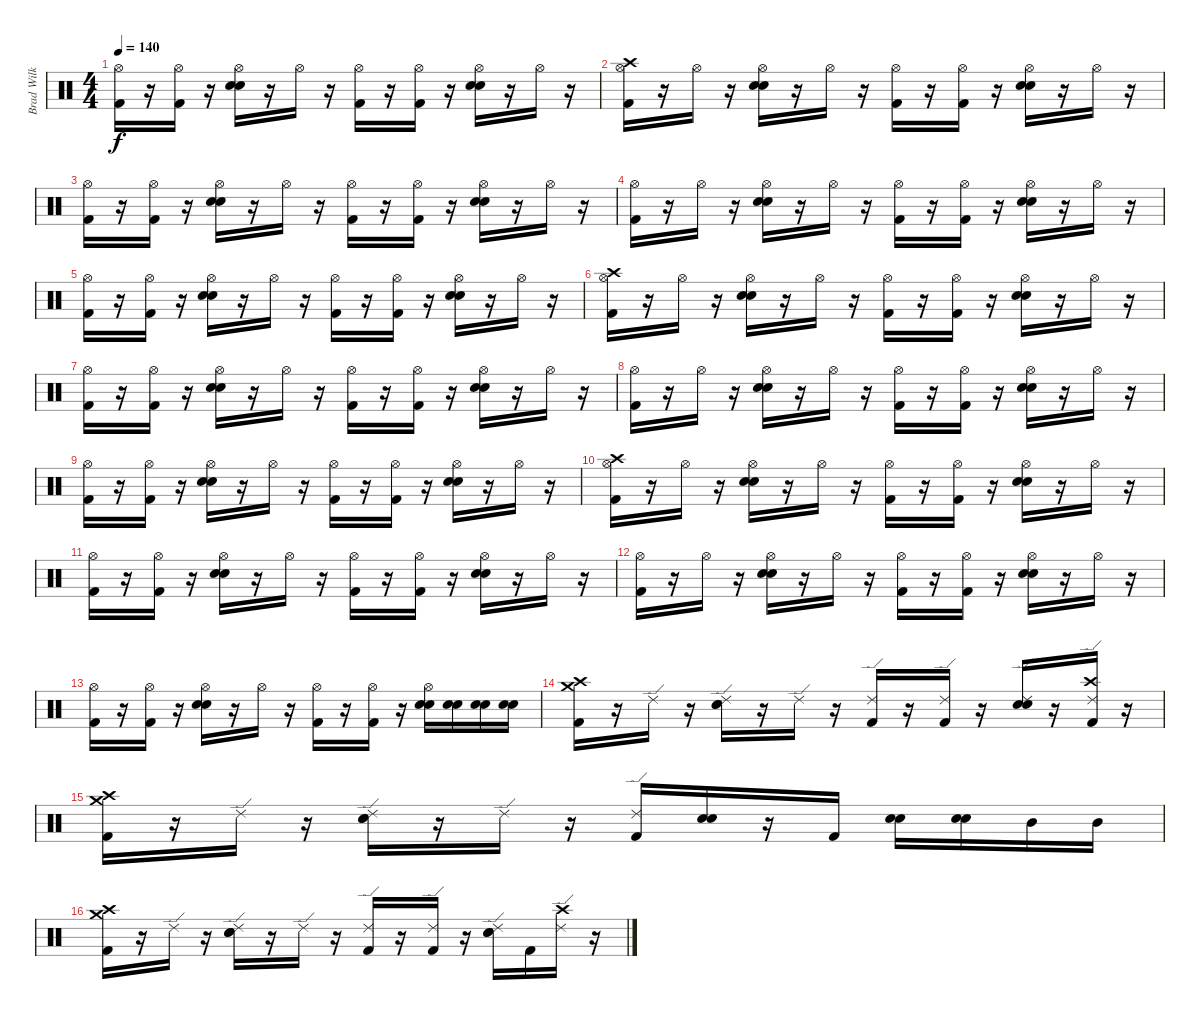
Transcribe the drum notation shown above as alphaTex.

\track ("Brad Wilk" "Brad Wilk") {instrument percussion}
\staff {score}
\articulation defaults
\ts (4 4)
\tempo 140
\clef neutral
\ks c
("Hi-Hat (open)" "Kick (hit) 2").16{dy f} r.16 ("Hi-Hat (open)" "Kick (hit) 2").16 r.16 ("Hi-Hat (open)" "Electric Snare (hit)" "Snare (hit) 2").16 r.16 "Hi-Hat (open)".16 r.16 ("Hi-Hat (open)" "Kick (hit) 2").16 r.16 ("Hi-Hat (open)" "Kick (hit) 2").16 r.16 ("Hi-Hat (open)" "Electric Snare (hit)" "Snare (hit) 2").16 r.16 "Hi-Hat (open)".16 r.16 |
("Hi-Hat (open)" "Crash high (hit)" "Kick (hit) 2").16 r.16 "Hi-Hat (open)".16 r.16 ("Hi-Hat (open)" "Electric Snare (hit)" "Snare (hit) 2").16 r.16 "Hi-Hat (open)".16 r.16 ("Hi-Hat (open)" "Kick (hit) 2").16 r.16 ("Hi-Hat (open)" "Kick (hit) 2").16 r.16 ("Hi-Hat (open)" "Electric Snare (hit)" "Snare (hit) 2").16 r.16 "Hi-Hat (open)".16 r.16 |
("Hi-Hat (open)" "Kick (hit) 2").16 r.16 ("Hi-Hat (open)" "Kick (hit) 2").16 r.16 ("Hi-Hat (open)" "Electric Snare (hit)" "Snare (hit) 2").16 r.16 "Hi-Hat (open)".16 r.16 ("Hi-Hat (open)" "Kick (hit) 2").16 r.16 ("Hi-Hat (open)" "Kick (hit) 2").16 r.16 ("Hi-Hat (open)" "Electric Snare (hit)" "Snare (hit) 2").16 r.16 "Hi-Hat (open)".16 r.16 |
("Hi-Hat (open)" "Kick (hit) 2").16 r.16 "Hi-Hat (open)".16 r.16 ("Hi-Hat (open)" "Electric Snare (hit)" "Snare (hit) 2").16 r.16 "Hi-Hat (open)".16 r.16 ("Hi-Hat (open)" "Kick (hit) 2").16 r.16 ("Hi-Hat (open)" "Kick (hit) 2").16 r.16 ("Hi-Hat (open)" "Electric Snare (hit)" "Snare (hit) 2").16 r.16 "Hi-Hat (open)".16 r.16 |
("Hi-Hat (open)" "Kick (hit) 2").16 r.16 ("Hi-Hat (open)" "Kick (hit) 2").16 r.16 ("Hi-Hat (open)" "Electric Snare (hit)" "Snare (hit) 2").16 r.16 "Hi-Hat (open)".16 r.16 ("Hi-Hat (open)" "Kick (hit) 2").16 r.16 ("Hi-Hat (open)" "Kick (hit) 2").16 r.16 ("Hi-Hat (open)" "Electric Snare (hit)" "Snare (hit) 2").16 r.16 "Hi-Hat (open)".16 r.16 |
("Hi-Hat (open)" "Crash high (hit)" "Kick (hit) 2").16 r.16 "Hi-Hat (open)".16 r.16 ("Hi-Hat (open)" "Electric Snare (hit)" "Snare (hit) 2").16 r.16 "Hi-Hat (open)".16 r.16 ("Hi-Hat (open)" "Kick (hit) 2").16 r.16 ("Hi-Hat (open)" "Kick (hit) 2").16 r.16 ("Hi-Hat (open)" "Electric Snare (hit)" "Snare (hit) 2").16 r.16 "Hi-Hat (open)".16 r.16 |
("Hi-Hat (open)" "Kick (hit) 2").16 r.16 ("Hi-Hat (open)" "Kick (hit) 2").16 r.16 ("Hi-Hat (open)" "Electric Snare (hit)" "Snare (hit) 2").16 r.16 "Hi-Hat (open)".16 r.16 ("Hi-Hat (open)" "Kick (hit) 2").16 r.16 ("Hi-Hat (open)" "Kick (hit) 2").16 r.16 ("Hi-Hat (open)" "Electric Snare (hit)" "Snare (hit) 2").16 r.16 "Hi-Hat (open)".16 r.16 |
("Hi-Hat (open)" "Kick (hit) 2").16 r.16 "Hi-Hat (open)".16 r.16 ("Hi-Hat (open)" "Electric Snare (hit)" "Snare (hit) 2").16 r.16 "Hi-Hat (open)".16 r.16 ("Hi-Hat (open)" "Kick (hit) 2").16 r.16 ("Hi-Hat (open)" "Kick (hit) 2").16 r.16 ("Hi-Hat (open)" "Electric Snare (hit)" "Snare (hit) 2").16 r.16 "Hi-Hat (open)".16 r.16 |
("Hi-Hat (open)" "Kick (hit) 2").16 r.16 ("Hi-Hat (open)" "Kick (hit) 2").16 r.16 ("Hi-Hat (open)" "Electric Snare (hit)" "Snare (hit) 2").16 r.16 "Hi-Hat (open)".16 r.16 ("Hi-Hat (open)" "Kick (hit) 2").16 r.16 ("Hi-Hat (open)" "Kick (hit) 2").16 r.16 ("Hi-Hat (open)" "Electric Snare (hit)" "Snare (hit) 2").16 r.16 "Hi-Hat (open)".16 r.16 |
("Hi-Hat (open)" "Crash high (hit)" "Kick (hit) 2").16 r.16 "Hi-Hat (open)".16 r.16 ("Hi-Hat (open)" "Electric Snare (hit)" "Snare (hit) 2").16 r.16 "Hi-Hat (open)".16 r.16 ("Hi-Hat (open)" "Kick (hit) 2").16 r.16 ("Hi-Hat (open)" "Kick (hit) 2").16 r.16 ("Hi-Hat (open)" "Electric Snare (hit)" "Snare (hit) 2").16 r.16 "Hi-Hat (open)".16 r.16 |
("Hi-Hat (open)" "Kick (hit) 2").16 r.16 ("Hi-Hat (open)" "Kick (hit) 2").16 r.16 ("Hi-Hat (open)" "Electric Snare (hit)" "Snare (hit) 2").16 r.16 "Hi-Hat (open)".16 r.16 ("Hi-Hat (open)" "Kick (hit) 2").16 r.16 ("Hi-Hat (open)" "Kick (hit) 2").16 r.16 ("Hi-Hat (open)" "Electric Snare (hit)" "Snare (hit) 2").16 r.16 "Hi-Hat (open)".16 r.16 |
("Hi-Hat (open)" "Kick (hit) 2").16 r.16 "Hi-Hat (open)".16 r.16 ("Hi-Hat (open)" "Electric Snare (hit)" "Snare (hit) 2").16 r.16 "Hi-Hat (open)".16 r.16 ("Hi-Hat (open)" "Kick (hit) 2").16 r.16 ("Hi-Hat (open)" "Kick (hit) 2").16 r.16 ("Hi-Hat (open)" "Electric Snare (hit)" "Snare (hit) 2").16 r.16 "Hi-Hat (open)".16 r.16 |
("Hi-Hat (open)" "Kick (hit) 2").16 r.16 ("Hi-Hat (open)" "Kick (hit) 2").16 r.16 ("Hi-Hat (open)" "Electric Snare (hit)" "Snare (hit) 2").16 r.16 "Hi-Hat (open)".16 r.16 ("Hi-Hat (open)" "Kick (hit) 2").16 r.16 ("Hi-Hat (open)" "Kick (hit) 2").16 r.16 ("Hi-Hat (open)" "Electric Snare (hit)" "Snare (hit) 2").16 ("Electric Snare (hit)" "Snare (hit) 2").16 ("Electric Snare (hit)" "Snare (hit) 2").16 ("Electric Snare (hit)" "Snare (hit) 2").16 |
("Crash medium (hit)" "Crash high (hit)" "Kick (hit) 2").16 r.16 "Ride (edge) 2".16 r.16 ("Ride (edge) 2" "Electric Snare (hit)" "Snare (hit) 2").16 r.16 "Ride (edge) 2".16 r.16 ("Ride (edge) 2" "Kick (hit) 2").16 r.16 ("Ride (edge) 2" "Kick (hit) 2").16 r.16 ("Ride (edge) 2" "Electric Snare (hit)" "Snare (hit) 2").16 r.16 ("Ride (edge) 2" "Crash high (hit)" "Kick (hit) 2").16 r.16 |
("Crash medium (hit)" "Crash high (hit)" "Kick (hit) 2").16 r.16 "Ride (edge) 2".16 r.16 ("Ride (edge) 2" "Electric Snare (hit)" "Snare (hit) 2").16 r.16 "Ride (edge) 2".16 r.16 ("Ride (edge) 2" "Kick (hit) 2").16 ("Electric Snare (hit)" "Snare (hit) 2").16 r.16 "Kick (hit) 2".16 ("Electric Snare (hit)" "Snare (hit) 2").16 ("Electric Snare (hit)" "Electric Snare (hit)").16 "Mid Tom (hit)".16 "Mid Tom (hit)".16 |
("Crash medium (hit)" "Crash high (hit)" "Kick (hit) 2").16 r.16 "Ride (edge) 2".16 r.16 ("Ride (edge) 2" "Electric Snare (hit)" "Snare (hit) 2").16 r.16 "Ride (edge) 2".16 r.16 ("Ride (edge) 2" "Kick (hit) 2").16 r.16 ("Ride (edge) 2" "Kick (hit) 2").16 r.16 ("Ride (edge) 2" "Electric Snare (hit)" "Snare (hit) 2").16 "Kick (hit) 2".16 ("Ride (edge) 2" "Crash high (hit)").16 r.16
